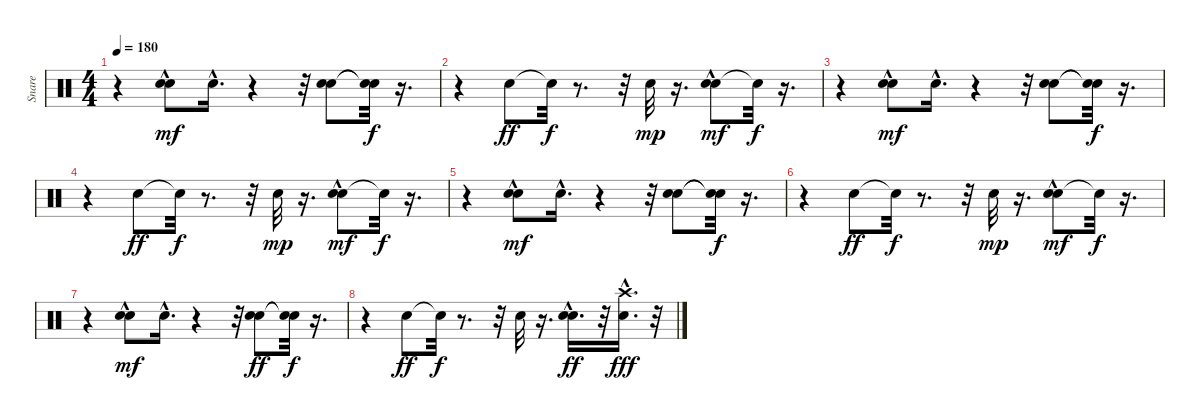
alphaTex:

\track ("Snare" "Snare") {instrument percussion}
\staff {score}
\articulation defaults
\ts (4 4)
\tempo 180
\clef neutral
\ks c
r.4{dy ff} ("Snare (hit) 2" "Hand Clap (hit)"{hac}).8{dy mf} "Hand Clap (hit)"{hac}.16{d} r.4 r.32 ("Snare (hit) 2" "Hand Clap (hit)").8 ("Snare (hit)"{t} "Snare (hit)"{t}).32{dy f} r.16{d} |
r.4 "Snare (hit) 2".8{dy ff} "Snare (hit)"{t}.32{dy f} r.8{d} r.32 "Hand Clap (hit)".32{dy mp} r.16{d} ("Snare (hit) 2" "Hand Clap (hit)"{hac}).8{dy mf} "Snare (hit)"{t}.32{dy f} r.16{d} |
r.4 ("Snare (hit) 2" "Hand Clap (hit)"{hac}).8{dy mf} "Hand Clap (hit)"{hac}.16{d} r.4 r.32 ("Snare (hit) 2" "Hand Clap (hit)").8 ("Snare (hit)"{t} "Snare (hit)"{t}).32{dy f} r.16{d} |
r.4 "Snare (hit) 2".8{dy ff} "Snare (hit)"{t}.32{dy f} r.8{d} r.32 "Hand Clap (hit)".32{dy mp} r.16{d} ("Snare (hit) 2" "Hand Clap (hit)"{hac}).8{dy mf} "Snare (hit)"{t}.32{dy f} r.16{d} |
r.4 ("Snare (hit) 2" "Hand Clap (hit)"{hac}).8{dy mf} "Hand Clap (hit)"{hac}.16{d} r.4 r.32 ("Snare (hit) 2" "Hand Clap (hit)").8 ("Snare (hit)"{t} "Snare (hit)"{t}).32{dy f} r.16{d} |
r.4 "Snare (hit) 2".8{dy ff} "Snare (hit)"{t}.32{dy f} r.8{d} r.32 "Hand Clap (hit)".32{dy mp} r.16{d} ("Snare (hit) 2" "Hand Clap (hit)"{hac}).8{dy mf} "Snare (hit)"{t}.32{dy f} r.16{d} |
r.4 ("Snare (hit) 2" "Hand Clap (hit)"{hac}).8{dy mf} "Hand Clap (hit)"{hac}.16{d} r.4 r.32 ("Snare (hit) 2" "Hand Clap (hit)").8{dy ff} ("Snare (hit)"{t} "Snare (hit)"{t}).32{dy f} r.16{d} |
r.4 "Snare (hit) 2".8{dy ff} "Snare (hit)"{t}.32{dy f} r.8{d} r.32 "Hand Clap (hit)".32 r.16{d} ("Snare (hit) 2"{hac} "Hand Clap (hit)"{hac}).16{d dy ff} r.32 ("Snare (hit) 2"{hac} "Crash high (hit)"{hac}).16{d dy fff} r.32
